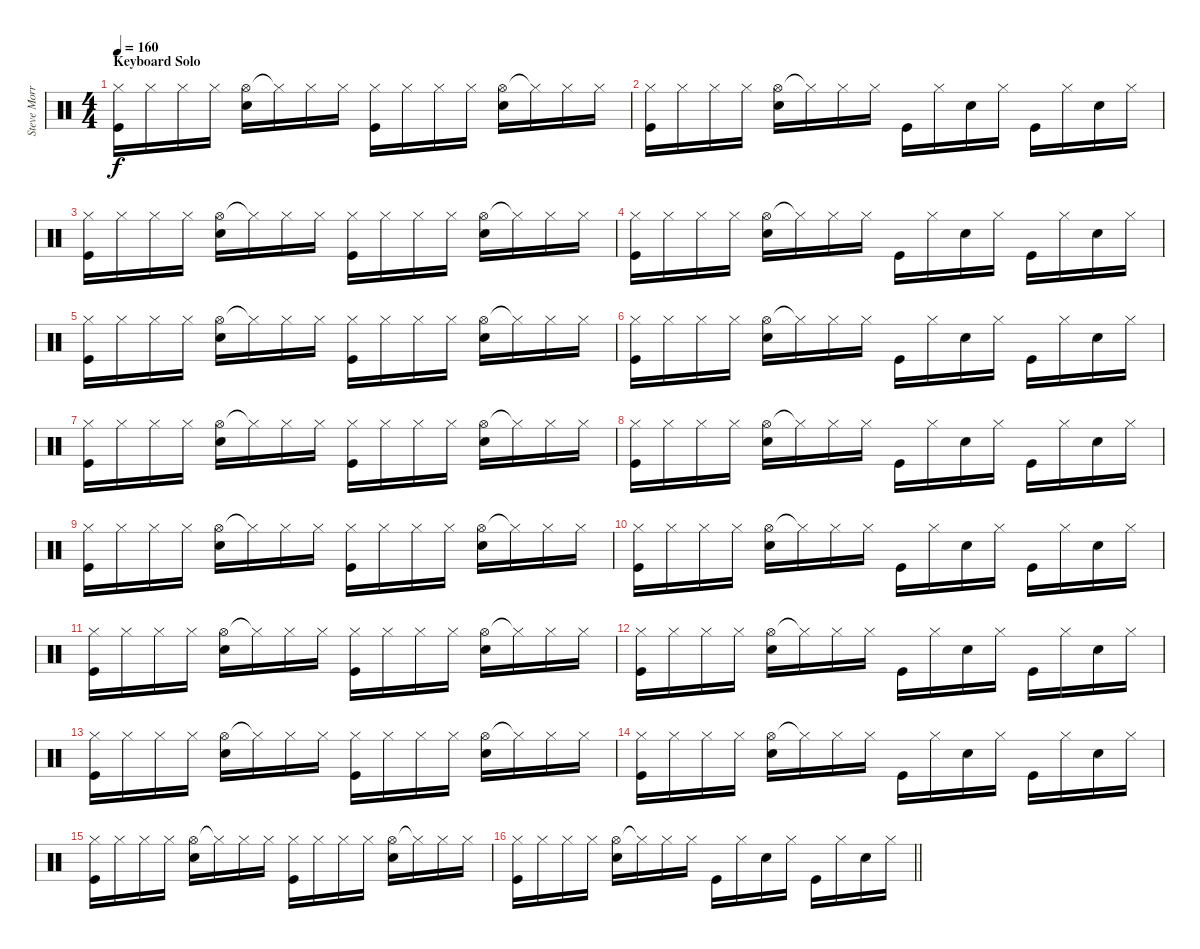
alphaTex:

\track ("Steve Morris" "Steve Morr") {instrument percussion}
\staff {score}
\articulation defaults
\ts (4 4)
\section ("" "Keyboard Solo")
\tempo 160
\clef neutral
\ks c
("Hi-Hat (closed)" "Kick (hit)").16{dy f} "Hi-Hat (closed)".16 "Hi-Hat (closed)".16 "Hi-Hat (closed)".16 ("Hi-Hat (open)" "Electric Snare (hit)").16 "Hi-Hat (closed)"{t}.16 "Hi-Hat (closed)".16 "Hi-Hat (closed)".16 ("Hi-Hat (closed)" "Kick (hit)").16 "Hi-Hat (closed)".16 "Hi-Hat (closed)".16 "Hi-Hat (closed)".16 ("Hi-Hat (open)" "Electric Snare (hit)").16 "Hi-Hat (closed)"{t}.16 "Hi-Hat (closed)".16 "Hi-Hat (closed)".16 |
("Hi-Hat (closed)" "Kick (hit)").16 "Hi-Hat (closed)".16 "Hi-Hat (closed)".16 "Hi-Hat (closed)".16 ("Hi-Hat (open)" "Electric Snare (hit)").16 "Hi-Hat (closed)"{t}.16 "Hi-Hat (closed)".16 "Hi-Hat (closed)".16 "Kick (hit)".16 "Hi-Hat (closed)".16 "Electric Snare (hit)".16 "Hi-Hat (closed)".16 "Kick (hit)".16 "Hi-Hat (closed)".16 "Electric Snare (hit)".16 "Hi-Hat (closed)".16 |
("Hi-Hat (closed)" "Kick (hit)").16 "Hi-Hat (closed)".16 "Hi-Hat (closed)".16 "Hi-Hat (closed)".16 ("Hi-Hat (open)" "Electric Snare (hit)").16 "Hi-Hat (closed)"{t}.16 "Hi-Hat (closed)".16 "Hi-Hat (closed)".16 ("Hi-Hat (closed)" "Kick (hit)").16 "Hi-Hat (closed)".16 "Hi-Hat (closed)".16 "Hi-Hat (closed)".16 ("Hi-Hat (open)" "Electric Snare (hit)").16 "Hi-Hat (closed)"{t}.16 "Hi-Hat (closed)".16 "Hi-Hat (closed)".16 |
("Hi-Hat (closed)" "Kick (hit)").16 "Hi-Hat (closed)".16 "Hi-Hat (closed)".16 "Hi-Hat (closed)".16 ("Hi-Hat (open)" "Electric Snare (hit)").16 "Hi-Hat (closed)"{t}.16 "Hi-Hat (closed)".16 "Hi-Hat (closed)".16 "Kick (hit)".16 "Hi-Hat (closed)".16 "Electric Snare (hit)".16 "Hi-Hat (closed)".16 "Kick (hit)".16 "Hi-Hat (closed)".16 "Electric Snare (hit)".16 "Hi-Hat (closed)".16 |
("Hi-Hat (closed)" "Kick (hit)").16 "Hi-Hat (closed)".16 "Hi-Hat (closed)".16 "Hi-Hat (closed)".16 ("Hi-Hat (open)" "Electric Snare (hit)").16 "Hi-Hat (closed)"{t}.16 "Hi-Hat (closed)".16 "Hi-Hat (closed)".16 ("Hi-Hat (closed)" "Kick (hit)").16 "Hi-Hat (closed)".16 "Hi-Hat (closed)".16 "Hi-Hat (closed)".16 ("Hi-Hat (open)" "Electric Snare (hit)").16 "Hi-Hat (closed)"{t}.16 "Hi-Hat (closed)".16 "Hi-Hat (closed)".16 |
("Hi-Hat (closed)" "Kick (hit)").16 "Hi-Hat (closed)".16 "Hi-Hat (closed)".16 "Hi-Hat (closed)".16 ("Hi-Hat (open)" "Electric Snare (hit)").16 "Hi-Hat (closed)"{t}.16 "Hi-Hat (closed)".16 "Hi-Hat (closed)".16 "Kick (hit)".16 "Hi-Hat (closed)".16 "Electric Snare (hit)".16 "Hi-Hat (closed)".16 "Kick (hit)".16 "Hi-Hat (closed)".16 "Electric Snare (hit)".16 "Hi-Hat (closed)".16 |
("Hi-Hat (closed)" "Kick (hit)").16 "Hi-Hat (closed)".16 "Hi-Hat (closed)".16 "Hi-Hat (closed)".16 ("Hi-Hat (open)" "Electric Snare (hit)").16 "Hi-Hat (closed)"{t}.16 "Hi-Hat (closed)".16 "Hi-Hat (closed)".16 ("Hi-Hat (closed)" "Kick (hit)").16 "Hi-Hat (closed)".16 "Hi-Hat (closed)".16 "Hi-Hat (closed)".16 ("Hi-Hat (open)" "Electric Snare (hit)").16 "Hi-Hat (closed)"{t}.16 "Hi-Hat (closed)".16 "Hi-Hat (closed)".16 |
("Hi-Hat (closed)" "Kick (hit)").16 "Hi-Hat (closed)".16 "Hi-Hat (closed)".16 "Hi-Hat (closed)".16 ("Hi-Hat (open)" "Electric Snare (hit)").16 "Hi-Hat (closed)"{t}.16 "Hi-Hat (closed)".16 "Hi-Hat (closed)".16 "Kick (hit)".16 "Hi-Hat (closed)".16 "Electric Snare (hit)".16 "Hi-Hat (closed)".16 "Kick (hit)".16 "Hi-Hat (closed)".16 "Electric Snare (hit)".16 "Hi-Hat (closed)".16 |
("Hi-Hat (closed)" "Kick (hit)").16 "Hi-Hat (closed)".16 "Hi-Hat (closed)".16 "Hi-Hat (closed)".16 ("Hi-Hat (open)" "Electric Snare (hit)").16 "Hi-Hat (closed)"{t}.16 "Hi-Hat (closed)".16 "Hi-Hat (closed)".16 ("Hi-Hat (closed)" "Kick (hit)").16 "Hi-Hat (closed)".16 "Hi-Hat (closed)".16 "Hi-Hat (closed)".16 ("Hi-Hat (open)" "Electric Snare (hit)").16 "Hi-Hat (closed)"{t}.16 "Hi-Hat (closed)".16 "Hi-Hat (closed)".16 |
("Hi-Hat (closed)" "Kick (hit)").16 "Hi-Hat (closed)".16 "Hi-Hat (closed)".16 "Hi-Hat (closed)".16 ("Hi-Hat (open)" "Electric Snare (hit)").16 "Hi-Hat (closed)"{t}.16 "Hi-Hat (closed)".16 "Hi-Hat (closed)".16 "Kick (hit)".16 "Hi-Hat (closed)".16 "Electric Snare (hit)".16 "Hi-Hat (closed)".16 "Kick (hit)".16 "Hi-Hat (closed)".16 "Electric Snare (hit)".16 "Hi-Hat (closed)".16 |
("Hi-Hat (closed)" "Kick (hit)").16 "Hi-Hat (closed)".16 "Hi-Hat (closed)".16 "Hi-Hat (closed)".16 ("Hi-Hat (open)" "Electric Snare (hit)").16 "Hi-Hat (closed)"{t}.16 "Hi-Hat (closed)".16 "Hi-Hat (closed)".16 ("Hi-Hat (closed)" "Kick (hit)").16 "Hi-Hat (closed)".16 "Hi-Hat (closed)".16 "Hi-Hat (closed)".16 ("Hi-Hat (open)" "Electric Snare (hit)").16 "Hi-Hat (closed)"{t}.16 "Hi-Hat (closed)".16 "Hi-Hat (closed)".16 |
("Hi-Hat (closed)" "Kick (hit)").16 "Hi-Hat (closed)".16 "Hi-Hat (closed)".16 "Hi-Hat (closed)".16 ("Hi-Hat (open)" "Electric Snare (hit)").16 "Hi-Hat (closed)"{t}.16 "Hi-Hat (closed)".16 "Hi-Hat (closed)".16 "Kick (hit)".16 "Hi-Hat (closed)".16 "Electric Snare (hit)".16 "Hi-Hat (closed)".16 "Kick (hit)".16 "Hi-Hat (closed)".16 "Electric Snare (hit)".16 "Hi-Hat (closed)".16 |
("Hi-Hat (closed)" "Kick (hit)").16 "Hi-Hat (closed)".16 "Hi-Hat (closed)".16 "Hi-Hat (closed)".16 ("Hi-Hat (open)" "Electric Snare (hit)").16 "Hi-Hat (closed)"{t}.16 "Hi-Hat (closed)".16 "Hi-Hat (closed)".16 ("Hi-Hat (closed)" "Kick (hit)").16 "Hi-Hat (closed)".16 "Hi-Hat (closed)".16 "Hi-Hat (closed)".16 ("Hi-Hat (open)" "Electric Snare (hit)").16 "Hi-Hat (closed)"{t}.16 "Hi-Hat (closed)".16 "Hi-Hat (closed)".16 |
("Hi-Hat (closed)" "Kick (hit)").16 "Hi-Hat (closed)".16 "Hi-Hat (closed)".16 "Hi-Hat (closed)".16 ("Hi-Hat (open)" "Electric Snare (hit)").16 "Hi-Hat (closed)"{t}.16 "Hi-Hat (closed)".16 "Hi-Hat (closed)".16 "Kick (hit)".16 "Hi-Hat (closed)".16 "Electric Snare (hit)".16 "Hi-Hat (closed)".16 "Kick (hit)".16 "Hi-Hat (closed)".16 "Electric Snare (hit)".16 "Hi-Hat (closed)".16 |
("Hi-Hat (closed)" "Kick (hit)").16 "Hi-Hat (closed)".16 "Hi-Hat (closed)".16 "Hi-Hat (closed)".16 ("Hi-Hat (open)" "Electric Snare (hit)").16 "Hi-Hat (closed)"{t}.16 "Hi-Hat (closed)".16 "Hi-Hat (closed)".16 ("Hi-Hat (closed)" "Kick (hit)").16 "Hi-Hat (closed)".16 "Hi-Hat (closed)".16 "Hi-Hat (closed)".16 ("Hi-Hat (open)" "Electric Snare (hit)").16 "Hi-Hat (closed)"{t}.16 "Hi-Hat (closed)".16 "Hi-Hat (closed)".16 |
\barLineRight lightlight
("Hi-Hat (closed)" "Kick (hit)").16 "Hi-Hat (closed)".16 "Hi-Hat (closed)".16 "Hi-Hat (closed)".16 ("Hi-Hat (open)" "Electric Snare (hit)").16 "Hi-Hat (closed)"{t}.16 "Hi-Hat (closed)".16 "Hi-Hat (closed)".16 "Kick (hit)".16 "Hi-Hat (closed)".16 "Electric Snare (hit)".16 "Hi-Hat (closed)".16 "Kick (hit)".16 "Hi-Hat (closed)".16 "Electric Snare (hit)".16 "Hi-Hat (closed)".16
